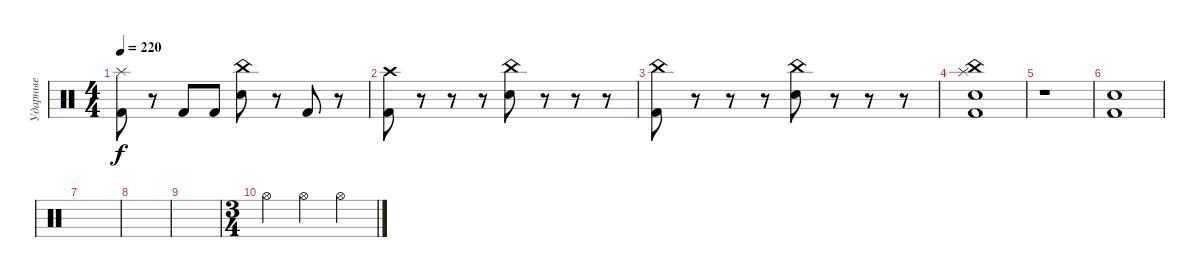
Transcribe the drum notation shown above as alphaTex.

\track ("Ударные" "Ударные") {instrument percussion}
\staff {score}
\articulation defaults
\ts (4 4)
\tempo 220
\clef neutral
\ks c
("Kick (hit) 2" "Splash (hit)").8{dy f} r.8 "Kick (hit) 2".8 "Kick (hit) 2".8 ("Electric Snare (hit)" "China (hit)").8 r.8 "Kick (hit) 2".8 r.8 |
("Kick (hit) 2" "Crash high (hit)").8 r.8 r.8 r.8 ("Electric Snare (hit)" "China (hit)").8 r.8 r.8 r.8 |
("Kick (hit) 2" "China (hit)").8 r.8 r.8 r.8 ("Electric Snare (hit)" "China (hit)").8 r.8 r.8 r.8 |
("Kick (hit) 2" "Electric Snare (hit)" "Splash (hit)" "China (hit)").1 |
r.1 |
("Kick (hit) 2" "Electric Snare (hit)").1 |
|
|
|
\ts (3 4)
"Hi-Hat (open)".4 "Hi-Hat (open)".4 "Hi-Hat (open)".4
